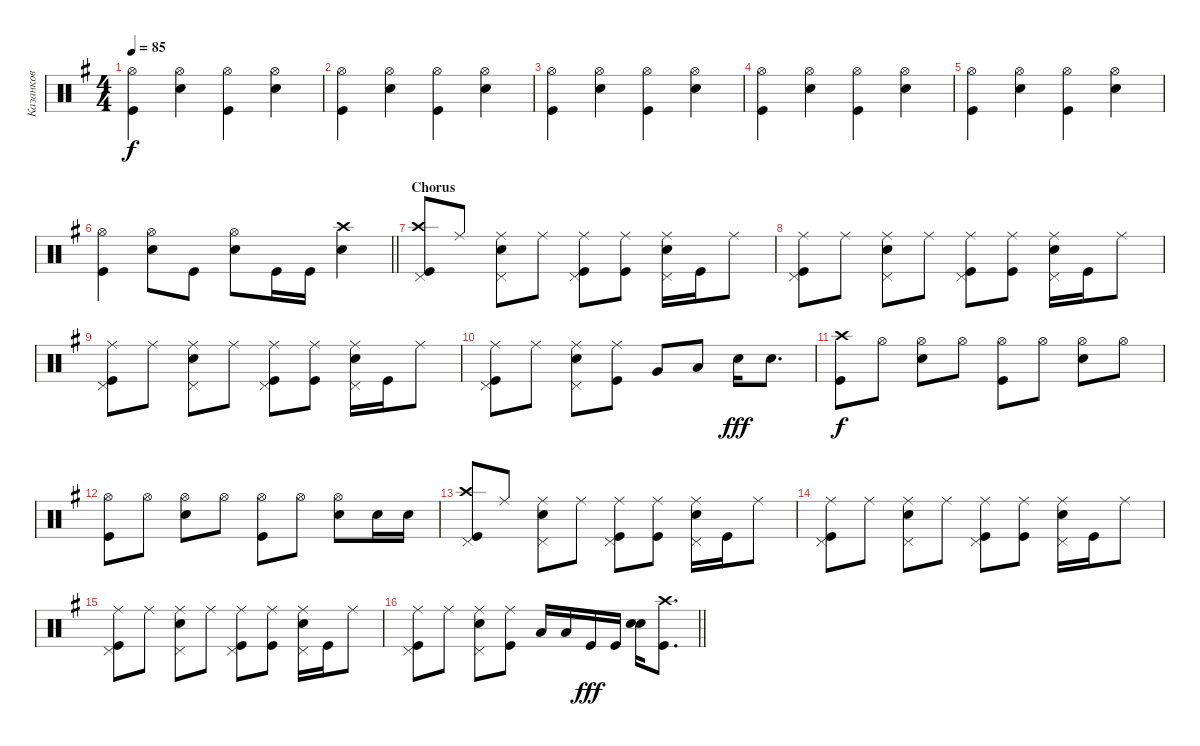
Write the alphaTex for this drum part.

\track ("Казанков" "Казанков") {instrument percussion}
\staff {score}
\articulation defaults
\ts (4 4)
\tempo 85
\clef neutral
\ks eminor
("Hi-Hat (open)" "Kick (hit)").4{dy f} ("Hi-Hat (open)" "Snare (hit) 2").4 ("Hi-Hat (open)" "Kick (hit)").4 ("Hi-Hat (open)" "Snare (hit) 2").4 |
("Hi-Hat (open)" "Kick (hit)").4 ("Hi-Hat (open)" "Snare (hit) 2").4 ("Hi-Hat (open)" "Kick (hit)").4 ("Hi-Hat (open)" "Snare (hit) 2").4 |
("Hi-Hat (open)" "Kick (hit)").4 ("Hi-Hat (open)" "Snare (hit) 2").4 ("Hi-Hat (open)" "Kick (hit)").4 ("Hi-Hat (open)" "Snare (hit) 2").4 |
("Hi-Hat (open)" "Kick (hit)").4 ("Hi-Hat (open)" "Snare (hit) 2").4 ("Hi-Hat (open)" "Kick (hit)").4 ("Hi-Hat (open)" "Snare (hit) 2").4 |
("Hi-Hat (open)" "Kick (hit)").4 ("Hi-Hat (open)" "Snare (hit) 2").4 ("Hi-Hat (open)" "Kick (hit)").4 ("Hi-Hat (open)" "Snare (hit) 2").4 |
\barLineRight lightlight
("Hi-Hat (open)" "Kick (hit)").4 ("Hi-Hat (open)" "Snare (hit) 2").8 "Kick (hit)".8 ("Hi-Hat (open)" "Snare (hit) 2").8 "Kick (hit)".16 "Kick (hit)".16 ("Crash high (hit)" "Snare (hit) 2").4 |
\section ("" "Chorus")
("Kick (hit)" "Crash high (hit)" "Pedal Hi-Hat (hit)").8 "Ride (middle)".8 ("Ride (middle)" "Snare (hit) 2" "Pedal Hi-Hat (hit)").8 "Ride (middle)".8 ("Ride (middle)" "Kick (hit)" "Pedal Hi-Hat (hit)").8 ("Kick (hit)" "Ride (middle)").8 ("Snare (hit) 2" "Ride (middle)" "Pedal Hi-Hat (hit)").16 "Kick (hit)".16 "Ride (middle)".8 |
("Kick (hit)" "Ride (middle)" "Pedal Hi-Hat (hit)").8 "Ride (middle)".8 ("Ride (middle)" "Snare (hit) 2" "Pedal Hi-Hat (hit)").8 "Ride (middle)".8 ("Ride (middle)" "Kick (hit)" "Pedal Hi-Hat (hit)").8 ("Kick (hit)" "Ride (middle)").8 ("Snare (hit) 2" "Ride (middle)" "Pedal Hi-Hat (hit)").16 "Kick (hit)".16 "Ride (middle)".8 |
("Kick (hit)" "Ride (middle)" "Pedal Hi-Hat (hit)").8 "Ride (middle)".8 ("Ride (middle)" "Snare (hit) 2" "Pedal Hi-Hat (hit)").8 "Ride (middle)".8 ("Ride (middle)" "Kick (hit)" "Pedal Hi-Hat (hit)").8 ("Kick (hit)" "Ride (middle)").8 ("Snare (hit) 2" "Ride (middle)" "Pedal Hi-Hat (hit)").16 "Kick (hit)".16 "Ride (middle)".8 |
("Kick (hit)" "Ride (middle)" "Pedal Hi-Hat (hit)").8 "Ride (middle)".8 ("Ride (middle)" "Snare (hit) 2" "Pedal Hi-Hat (hit)").8 ("Ride (middle)" "Kick (hit)").8 "Very Low Tom (hit)".8 "Low Floor Tom (hit)".8 "Snare (hit) 2".16{dy fff} "Snare (hit) 2".8{d} |
("Crash high (hit)" "Kick (hit)").8{dy f} "Hi-Hat (open)".8 ("Hi-Hat (open)" "Snare (hit) 2").8 "Hi-Hat (open)".8 ("Hi-Hat (open)" "Kick (hit)").8 "Hi-Hat (open)".8 ("Hi-Hat (open)" "Snare (hit) 2").8 "Hi-Hat (open)".8 |
("Hi-Hat (open)" "Kick (hit)").8 "Hi-Hat (open)".8 ("Hi-Hat (open)" "Snare (hit) 2").8 "Hi-Hat (open)".8 ("Hi-Hat (open)" "Kick (hit)").8 "Hi-Hat (open)".8 ("Hi-Hat (open)" "Snare (hit) 2").8 "Snare (hit) 2".16 "Snare (hit) 2".16 |
("Kick (hit)" "Crash high (hit)" "Pedal Hi-Hat (hit)").8 "Ride (middle)".8 ("Ride (middle)" "Snare (hit) 2" "Pedal Hi-Hat (hit)").8 "Ride (middle)".8 ("Ride (middle)" "Kick (hit)" "Pedal Hi-Hat (hit)").8 ("Kick (hit)" "Ride (middle)").8 ("Snare (hit) 2" "Ride (middle)" "Pedal Hi-Hat (hit)").16 "Kick (hit)".16 "Ride (middle)".8 |
("Kick (hit)" "Ride (middle)" "Pedal Hi-Hat (hit)").8 "Ride (middle)".8 ("Ride (middle)" "Snare (hit) 2" "Pedal Hi-Hat (hit)").8 "Ride (middle)".8 ("Ride (middle)" "Kick (hit)" "Pedal Hi-Hat (hit)").8 ("Kick (hit)" "Ride (middle)").8 ("Snare (hit) 2" "Ride (middle)" "Pedal Hi-Hat (hit)").16 "Kick (hit)".16 "Ride (middle)".8 |
("Kick (hit)" "Ride (middle)" "Pedal Hi-Hat (hit)").8 "Ride (middle)".8 ("Ride (middle)" "Snare (hit) 2" "Pedal Hi-Hat (hit)").8 "Ride (middle)".8 ("Ride (middle)" "Kick (hit)" "Pedal Hi-Hat (hit)").8 ("Kick (hit)" "Ride (middle)").8 ("Snare (hit) 2" "Ride (middle)" "Pedal Hi-Hat (hit)").16 "Kick (hit)".16 "Ride (middle)".8 |
\barLineRight lightlight
("Kick (hit)" "Ride (middle)" "Pedal Hi-Hat (hit)").8 "Ride (middle)".8 ("Ride (middle)" "Snare (hit) 2" "Pedal Hi-Hat (hit)").8 ("Ride (middle)" "Kick (hit)").8 "Low Floor Tom (hit)".16 "Low Floor Tom (hit)".16 "Kick (hit)".16{dy fff} "Kick (hit)".16 ("Snare (hit) 2" "Snare (hit) 2").16{bd 480} ("Kick (hit)" "Crash high (hit)").8{d}
